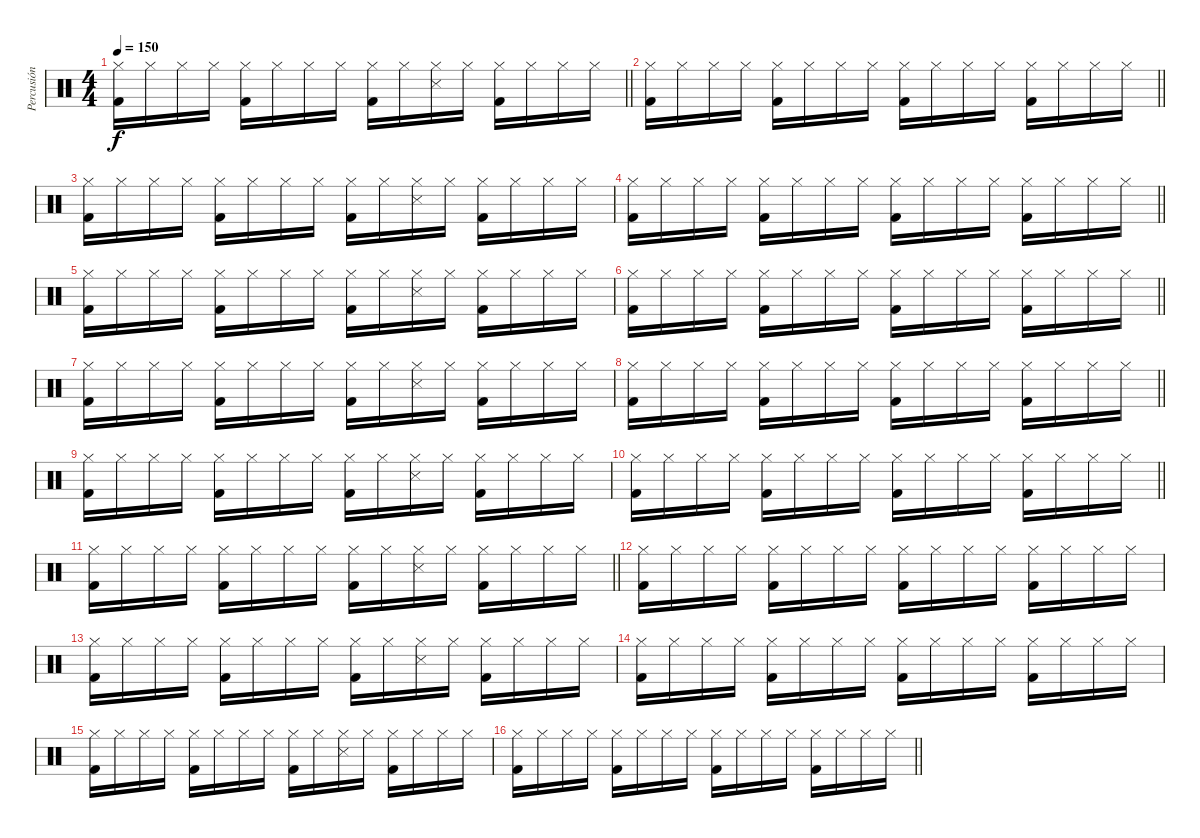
\track ("Percusión" "Percusión") {instrument percussion}
\staff {score}
\articulation defaults
\ts (4 4)
\tempo 150
\clef neutral
\barLineRight lightlight
\ks c
("Kick (hit) 2" "Hi-Hat (closed)").16{dy f} "Hi-Hat (closed)".16 "Hi-Hat (closed)".16 "Hi-Hat (closed)".16 ("Kick (hit) 2" "Hi-Hat (closed)").16 "Hi-Hat (closed)".16 "Hi-Hat (closed)".16 "Hi-Hat (closed)".16 ("Kick (hit) 2" "Hi-Hat (closed)").16 "Hi-Hat (closed)".16 ("Snare (side stick) 3" "Hi-Hat (closed)").16 "Hi-Hat (closed)".16 ("Kick (hit) 2" "Hi-Hat (closed)").16 "Hi-Hat (closed)".16 "Hi-Hat (closed)".16 "Hi-Hat (closed)".16 |
\barLineRight lightlight
("Kick (hit) 2" "Hi-Hat (closed)").16 "Hi-Hat (closed)".16 "Hi-Hat (closed)".16 "Hi-Hat (closed)".16 ("Kick (hit) 2" "Hi-Hat (closed)").16 "Hi-Hat (closed)".16 "Hi-Hat (closed)".16 "Hi-Hat (closed)".16 ("Kick (hit) 2" "Hi-Hat (closed)").16 "Hi-Hat (closed)".16 "Hi-Hat (closed)".16 "Hi-Hat (closed)".16 ("Kick (hit) 2" "Hi-Hat (closed)").16 "Hi-Hat (closed)".16 "Hi-Hat (closed)".16 "Hi-Hat (closed)".16 |
("Kick (hit) 2" "Hi-Hat (closed)").16 "Hi-Hat (closed)".16 "Hi-Hat (closed)".16 "Hi-Hat (closed)".16 ("Kick (hit) 2" "Hi-Hat (closed)").16 "Hi-Hat (closed)".16 "Hi-Hat (closed)".16 "Hi-Hat (closed)".16 ("Kick (hit) 2" "Hi-Hat (closed)").16 "Hi-Hat (closed)".16 ("Snare (side stick) 3" "Hi-Hat (closed)").16 "Hi-Hat (closed)".16 ("Kick (hit) 2" "Hi-Hat (closed)").16 "Hi-Hat (closed)".16 "Hi-Hat (closed)".16 "Hi-Hat (closed)".16 |
\barLineRight lightlight
("Kick (hit) 2" "Hi-Hat (closed)").16 "Hi-Hat (closed)".16 "Hi-Hat (closed)".16 "Hi-Hat (closed)".16 ("Kick (hit) 2" "Hi-Hat (closed)").16 "Hi-Hat (closed)".16 "Hi-Hat (closed)".16 "Hi-Hat (closed)".16 ("Kick (hit) 2" "Hi-Hat (closed)").16 "Hi-Hat (closed)".16 "Hi-Hat (closed)".16 "Hi-Hat (closed)".16 ("Kick (hit) 2" "Hi-Hat (closed)").16 "Hi-Hat (closed)".16 "Hi-Hat (closed)".16 "Hi-Hat (closed)".16 |
("Kick (hit) 2" "Hi-Hat (closed)").16 "Hi-Hat (closed)".16 "Hi-Hat (closed)".16 "Hi-Hat (closed)".16 ("Kick (hit) 2" "Hi-Hat (closed)").16 "Hi-Hat (closed)".16 "Hi-Hat (closed)".16 "Hi-Hat (closed)".16 ("Kick (hit) 2" "Hi-Hat (closed)").16 "Hi-Hat (closed)".16 ("Snare (side stick) 3" "Hi-Hat (closed)").16 "Hi-Hat (closed)".16 ("Kick (hit) 2" "Hi-Hat (closed)").16 "Hi-Hat (closed)".16 "Hi-Hat (closed)".16 "Hi-Hat (closed)".16 |
\barLineRight lightlight
("Kick (hit) 2" "Hi-Hat (closed)").16 "Hi-Hat (closed)".16 "Hi-Hat (closed)".16 "Hi-Hat (closed)".16 ("Kick (hit) 2" "Hi-Hat (closed)").16 "Hi-Hat (closed)".16 "Hi-Hat (closed)".16 "Hi-Hat (closed)".16 ("Kick (hit) 2" "Hi-Hat (closed)").16 "Hi-Hat (closed)".16 "Hi-Hat (closed)".16 "Hi-Hat (closed)".16 ("Kick (hit) 2" "Hi-Hat (closed)").16 "Hi-Hat (closed)".16 "Hi-Hat (closed)".16 "Hi-Hat (closed)".16 |
("Kick (hit) 2" "Hi-Hat (closed)").16 "Hi-Hat (closed)".16 "Hi-Hat (closed)".16 "Hi-Hat (closed)".16 ("Kick (hit) 2" "Hi-Hat (closed)").16 "Hi-Hat (closed)".16 "Hi-Hat (closed)".16 "Hi-Hat (closed)".16 ("Kick (hit) 2" "Hi-Hat (closed)").16 "Hi-Hat (closed)".16 ("Snare (side stick) 3" "Hi-Hat (closed)").16 "Hi-Hat (closed)".16 ("Kick (hit) 2" "Hi-Hat (closed)").16 "Hi-Hat (closed)".16 "Hi-Hat (closed)".16 "Hi-Hat (closed)".16 |
\barLineRight lightlight
("Kick (hit) 2" "Hi-Hat (closed)").16 "Hi-Hat (closed)".16 "Hi-Hat (closed)".16 "Hi-Hat (closed)".16 ("Kick (hit) 2" "Hi-Hat (closed)").16 "Hi-Hat (closed)".16 "Hi-Hat (closed)".16 "Hi-Hat (closed)".16 ("Kick (hit) 2" "Hi-Hat (closed)").16 "Hi-Hat (closed)".16 "Hi-Hat (closed)".16 "Hi-Hat (closed)".16 ("Kick (hit) 2" "Hi-Hat (closed)").16 "Hi-Hat (closed)".16 "Hi-Hat (closed)".16 "Hi-Hat (closed)".16 |
("Kick (hit) 2" "Hi-Hat (closed)").16 "Hi-Hat (closed)".16 "Hi-Hat (closed)".16 "Hi-Hat (closed)".16 ("Kick (hit) 2" "Hi-Hat (closed)").16 "Hi-Hat (closed)".16 "Hi-Hat (closed)".16 "Hi-Hat (closed)".16 ("Kick (hit) 2" "Hi-Hat (closed)").16 "Hi-Hat (closed)".16 ("Snare (side stick) 3" "Hi-Hat (closed)").16 "Hi-Hat (closed)".16 ("Kick (hit) 2" "Hi-Hat (closed)").16 "Hi-Hat (closed)".16 "Hi-Hat (closed)".16 "Hi-Hat (closed)".16 |
\barLineRight lightlight
("Kick (hit) 2" "Hi-Hat (closed)").16 "Hi-Hat (closed)".16 "Hi-Hat (closed)".16 "Hi-Hat (closed)".16 ("Kick (hit) 2" "Hi-Hat (closed)").16 "Hi-Hat (closed)".16 "Hi-Hat (closed)".16 "Hi-Hat (closed)".16 ("Kick (hit) 2" "Hi-Hat (closed)").16 "Hi-Hat (closed)".16 "Hi-Hat (closed)".16 "Hi-Hat (closed)".16 ("Kick (hit) 2" "Hi-Hat (closed)").16 "Hi-Hat (closed)".16 "Hi-Hat (closed)".16 "Hi-Hat (closed)".16 |
\barLineRight lightlight
("Kick (hit) 2" "Hi-Hat (closed)").16 "Hi-Hat (closed)".16 "Hi-Hat (closed)".16 "Hi-Hat (closed)".16 ("Kick (hit) 2" "Hi-Hat (closed)").16 "Hi-Hat (closed)".16 "Hi-Hat (closed)".16 "Hi-Hat (closed)".16 ("Kick (hit) 2" "Hi-Hat (closed)").16 "Hi-Hat (closed)".16 ("Snare (side stick) 3" "Hi-Hat (closed)").16 "Hi-Hat (closed)".16 ("Kick (hit) 2" "Hi-Hat (closed)").16 "Hi-Hat (closed)".16 "Hi-Hat (closed)".16 "Hi-Hat (closed)".16 |
("Kick (hit) 2" "Hi-Hat (closed)").16 "Hi-Hat (closed)".16 "Hi-Hat (closed)".16 "Hi-Hat (closed)".16 ("Kick (hit) 2" "Hi-Hat (closed)").16 "Hi-Hat (closed)".16 "Hi-Hat (closed)".16 "Hi-Hat (closed)".16 ("Kick (hit) 2" "Hi-Hat (closed)").16 "Hi-Hat (closed)".16 "Hi-Hat (closed)".16 "Hi-Hat (closed)".16 ("Kick (hit) 2" "Hi-Hat (closed)").16 "Hi-Hat (closed)".16 "Hi-Hat (closed)".16 "Hi-Hat (closed)".16 |
("Kick (hit) 2" "Hi-Hat (closed)").16 "Hi-Hat (closed)".16 "Hi-Hat (closed)".16 "Hi-Hat (closed)".16 ("Kick (hit) 2" "Hi-Hat (closed)").16 "Hi-Hat (closed)".16 "Hi-Hat (closed)".16 "Hi-Hat (closed)".16 ("Kick (hit) 2" "Hi-Hat (closed)").16 "Hi-Hat (closed)".16 ("Snare (side stick) 3" "Hi-Hat (closed)").16 "Hi-Hat (closed)".16 ("Kick (hit) 2" "Hi-Hat (closed)").16 "Hi-Hat (closed)".16 "Hi-Hat (closed)".16 "Hi-Hat (closed)".16 |
("Kick (hit) 2" "Hi-Hat (closed)").16 "Hi-Hat (closed)".16 "Hi-Hat (closed)".16 "Hi-Hat (closed)".16 ("Kick (hit) 2" "Hi-Hat (closed)").16 "Hi-Hat (closed)".16 "Hi-Hat (closed)".16 "Hi-Hat (closed)".16 ("Kick (hit) 2" "Hi-Hat (closed)").16 "Hi-Hat (closed)".16 "Hi-Hat (closed)".16 "Hi-Hat (closed)".16 ("Kick (hit) 2" "Hi-Hat (closed)").16 "Hi-Hat (closed)".16 "Hi-Hat (closed)".16 "Hi-Hat (closed)".16 |
("Kick (hit) 2" "Hi-Hat (closed)").16 "Hi-Hat (closed)".16 "Hi-Hat (closed)".16 "Hi-Hat (closed)".16 ("Kick (hit) 2" "Hi-Hat (closed)").16 "Hi-Hat (closed)".16 "Hi-Hat (closed)".16 "Hi-Hat (closed)".16 ("Kick (hit) 2" "Hi-Hat (closed)").16 "Hi-Hat (closed)".16 ("Snare (side stick) 3" "Hi-Hat (closed)").16 "Hi-Hat (closed)".16 ("Kick (hit) 2" "Hi-Hat (closed)").16 "Hi-Hat (closed)".16 "Hi-Hat (closed)".16 "Hi-Hat (closed)".16 |
\barLineRight lightlight
("Kick (hit) 2" "Hi-Hat (closed)").16 "Hi-Hat (closed)".16 "Hi-Hat (closed)".16 "Hi-Hat (closed)".16 ("Kick (hit) 2" "Hi-Hat (closed)").16 "Hi-Hat (closed)".16 "Hi-Hat (closed)".16 "Hi-Hat (closed)".16 ("Kick (hit) 2" "Hi-Hat (closed)").16 "Hi-Hat (closed)".16 "Hi-Hat (closed)".16 "Hi-Hat (closed)".16 ("Kick (hit) 2" "Hi-Hat (closed)").16 "Hi-Hat (closed)".16 "Hi-Hat (closed)".16 "Hi-Hat (closed)".16
